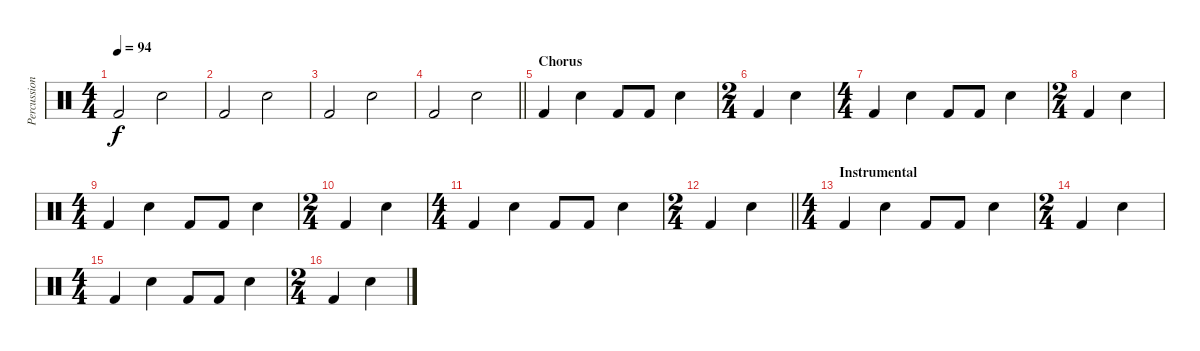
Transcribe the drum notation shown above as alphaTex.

\track ("Percussion" "Percussion") {instrument percussion}
\staff {score}
\articulation defaults
\ts (4 4)
\tempo 94
\clef neutral
\ks c "Kick (hit) 2".2{dy f} "Snare (hit) 2".2
|
"Kick (hit) 2".2 "Snare (hit) 2".2 |
"Kick (hit) 2".2 "Snare (hit) 2".2 |
\barLineRight lightlight "Kick (hit) 2".2 "Snare (hit) 2".2
|
\section ("" "Chorus")
"Kick (hit) 2".4 "Snare (hit) 2".4 "Kick (hit) 2".8 "Kick (hit) 2".8 "Snare (hit) 2".4 |
\ts (2 4)
"Kick (hit) 2".4 "Snare (hit) 2".4 |
\ts (4 4)
"Kick (hit) 2".4 "Snare (hit) 2".4 "Kick (hit) 2".8 "Kick (hit) 2".8 "Snare (hit) 2".4 |
\ts (2 4)
"Kick (hit) 2".4 "Snare (hit) 2".4 |
\ts (4 4)
"Kick (hit) 2".4 "Snare (hit) 2".4 "Kick (hit) 2".8 "Kick (hit) 2".8 "Snare (hit) 2".4 |
\ts (2 4)
"Kick (hit) 2".4 "Snare (hit) 2".4 |
\ts (4 4)
"Kick (hit) 2".4 "Snare (hit) 2".4 "Kick (hit) 2".8 "Kick (hit) 2".8 "Snare (hit) 2".4 |
\ts (2 4)
\barLineRight lightlight "Kick (hit) 2".4 "Snare (hit) 2".4
|
\ts (4 4)
\section ("" "Instrumental")
"Kick (hit) 2".4 "Snare (hit) 2".4 "Kick (hit) 2".8 "Kick (hit) 2".8 "Snare (hit) 2".4 |
\ts (2 4)
"Kick (hit) 2".4 "Snare (hit) 2".4 |
\ts (4 4)
"Kick (hit) 2".4 "Snare (hit) 2".4 "Kick (hit) 2".8 "Kick (hit) 2".8 "Snare (hit) 2".4 |
\ts (2 4)
"Kick (hit) 2".4 "Snare (hit) 2".4
